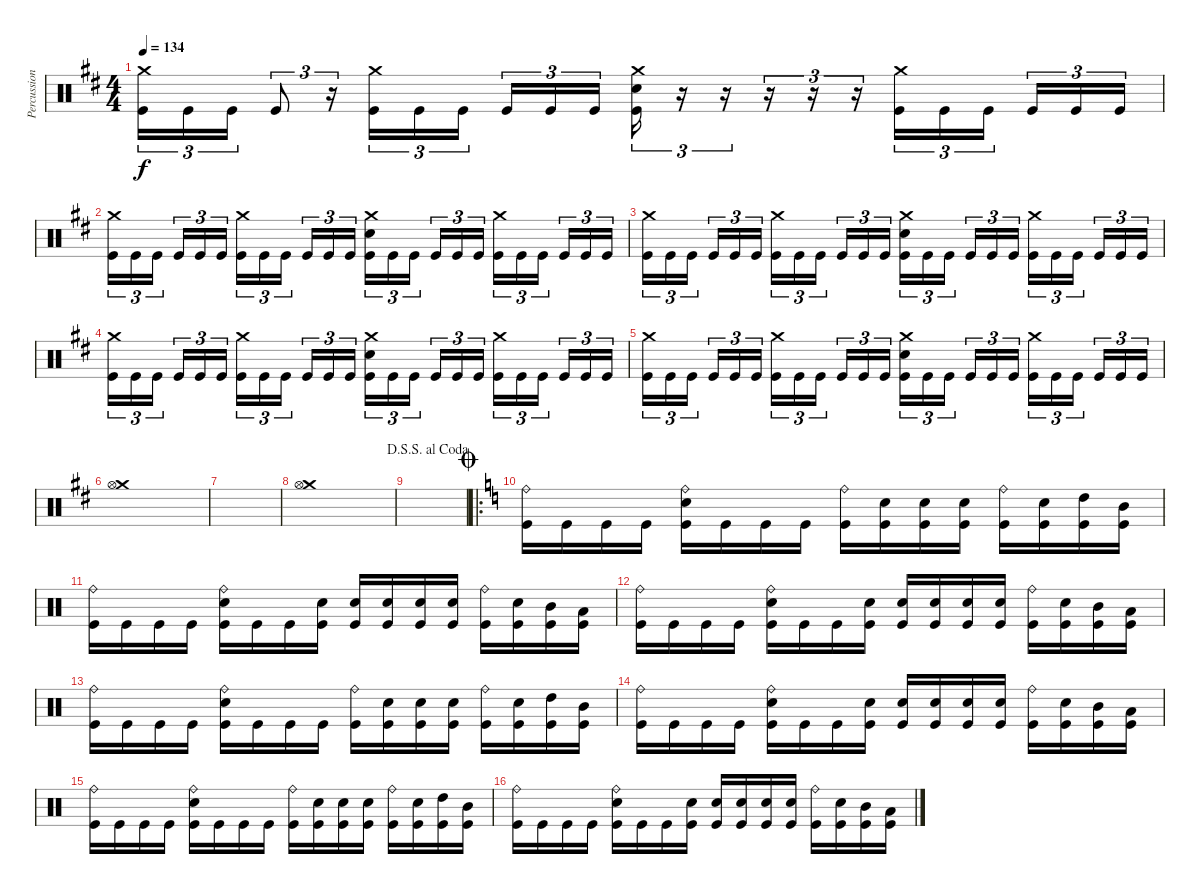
\track ("Percussion" "Percussion") {instrument percussion}
\staff {score}
\articulation defaults
\ts (4 4)
\tempo 134
\clef neutral
\ks d
("Crash medium (hit)" "Kick (hit)").16{tu (3 2) dy f} "Kick (hit)".16{tu (3 2)} "Kick (hit)".16{tu (3 2)} "Kick (hit)".8{tu (3 2)} r.16{tu (3 2)} ("Crash medium (hit)" "Kick (hit)").16{tu (3 2)} "Kick (hit)".16{tu (3 2)} "Kick (hit)".16{tu (3 2) beam splitsecondary} "Kick (hit)".16{tu (3 2)} "Kick (hit)".16{tu (3 2)} "Kick (hit)".16{tu (3 2)} ("Crash medium (hit)" "Electric Snare (hit)" "Kick (hit)").16{tu (3 2)} r.16{tu (3 2)} r.16{tu (3 2)} r.16{tu (3 2)} r.16{tu (3 2)} r.16{tu (3 2)} ("Crash medium (hit)" "Kick (hit)").16{tu (3 2)} "Kick (hit)".16{tu (3 2)} "Kick (hit)".16{tu (3 2) beam splitsecondary} "Kick (hit)".16{tu (3 2)} "Kick (hit)".16{tu (3 2)} "Kick (hit)".16{tu (3 2)} |
("Crash medium (hit)" "Kick (hit)").16{tu (3 2)} "Kick (hit)".16{tu (3 2)} "Kick (hit)".16{tu (3 2) beam splitsecondary} "Kick (hit)".16{tu (3 2)} "Kick (hit)".16{tu (3 2)} "Kick (hit)".16{tu (3 2)} ("Crash medium (hit)" "Kick (hit)").16{tu (3 2)} "Kick (hit)".16{tu (3 2)} "Kick (hit)".16{tu (3 2) beam splitsecondary} "Kick (hit)".16{tu (3 2)} "Kick (hit)".16{tu (3 2)} "Kick (hit)".16{tu (3 2)} ("Crash medium (hit)" "Electric Snare (hit)" "Kick (hit)").16{tu (3 2)} "Kick (hit)".16{tu (3 2)} "Kick (hit)".16{tu (3 2) beam splitsecondary} "Kick (hit)".16{tu (3 2)} "Kick (hit)".16{tu (3 2)} "Kick (hit)".16{tu (3 2)} ("Crash medium (hit)" "Kick (hit)").16{tu (3 2)} "Kick (hit)".16{tu (3 2)} "Kick (hit)".16{tu (3 2) beam splitsecondary} "Kick (hit)".16{tu (3 2)} "Kick (hit)".16{tu (3 2)} "Kick (hit)".16{tu (3 2)} |
("Crash medium (hit)" "Kick (hit)").16{tu (3 2)} "Kick (hit)".16{tu (3 2)} "Kick (hit)".16{tu (3 2) beam splitsecondary} "Kick (hit)".16{tu (3 2)} "Kick (hit)".16{tu (3 2)} "Kick (hit)".16{tu (3 2)} ("Crash medium (hit)" "Kick (hit)").16{tu (3 2)} "Kick (hit)".16{tu (3 2)} "Kick (hit)".16{tu (3 2) beam splitsecondary} "Kick (hit)".16{tu (3 2)} "Kick (hit)".16{tu (3 2)} "Kick (hit)".16{tu (3 2)} ("Crash medium (hit)" "Electric Snare (hit)" "Kick (hit)").16{tu (3 2)} "Kick (hit)".16{tu (3 2)} "Kick (hit)".16{tu (3 2) beam splitsecondary} "Kick (hit)".16{tu (3 2)} "Kick (hit)".16{tu (3 2)} "Kick (hit)".16{tu (3 2)} ("Crash medium (hit)" "Kick (hit)").16{tu (3 2)} "Kick (hit)".16{tu (3 2)} "Kick (hit)".16{tu (3 2) beam splitsecondary} "Kick (hit)".16{tu (3 2)} "Kick (hit)".16{tu (3 2)} "Kick (hit)".16{tu (3 2)} |
("Crash medium (hit)" "Kick (hit)").16{tu (3 2)} "Kick (hit)".16{tu (3 2)} "Kick (hit)".16{tu (3 2) beam splitsecondary} "Kick (hit)".16{tu (3 2)} "Kick (hit)".16{tu (3 2)} "Kick (hit)".16{tu (3 2)} ("Crash medium (hit)" "Kick (hit)").16{tu (3 2)} "Kick (hit)".16{tu (3 2)} "Kick (hit)".16{tu (3 2) beam splitsecondary} "Kick (hit)".16{tu (3 2)} "Kick (hit)".16{tu (3 2)} "Kick (hit)".16{tu (3 2)} ("Crash medium (hit)" "Electric Snare (hit)" "Kick (hit)").16{tu (3 2)} "Kick (hit)".16{tu (3 2)} "Kick (hit)".16{tu (3 2) beam splitsecondary} "Kick (hit)".16{tu (3 2)} "Kick (hit)".16{tu (3 2)} "Kick (hit)".16{tu (3 2)} ("Crash medium (hit)" "Kick (hit)").16{tu (3 2)} "Kick (hit)".16{tu (3 2)} "Kick (hit)".16{tu (3 2) beam splitsecondary} "Kick (hit)".16{tu (3 2)} "Kick (hit)".16{tu (3 2)} "Kick (hit)".16{tu (3 2)} |
("Crash medium (hit)" "Kick (hit)").16{tu (3 2)} "Kick (hit)".16{tu (3 2)} "Kick (hit)".16{tu (3 2) beam splitsecondary} "Kick (hit)".16{tu (3 2)} "Kick (hit)".16{tu (3 2)} "Kick (hit)".16{tu (3 2)} ("Crash medium (hit)" "Kick (hit)").16{tu (3 2)} "Kick (hit)".16{tu (3 2)} "Kick (hit)".16{tu (3 2) beam splitsecondary} "Kick (hit)".16{tu (3 2)} "Kick (hit)".16{tu (3 2)} "Kick (hit)".16{tu (3 2)} ("Crash medium (hit)" "Electric Snare (hit)" "Kick (hit)").16{tu (3 2)} "Kick (hit)".16{tu (3 2)} "Kick (hit)".16{tu (3 2) beam splitsecondary} "Kick (hit)".16{tu (3 2)} "Kick (hit)".16{tu (3 2)} "Kick (hit)".16{tu (3 2)} ("Crash medium (hit)" "Kick (hit)").16{tu (3 2)} "Kick (hit)".16{tu (3 2)} "Kick (hit)".16{tu (3 2) beam splitsecondary} "Kick (hit)".16{tu (3 2)} "Kick (hit)".16{tu (3 2)} "Kick (hit)".16{tu (3 2)} |
("Crash medium (hit)" "Hi-Hat (open)").1 |
|
("Crash medium (hit)" "Hi-Hat (open)").1 |
\jump dalsegnosegnoalcoda
|
\ro
\jump coda
\ks c
("Ride (bell)" "Kick (hit)").16 "Kick (hit)".16 "Kick (hit)".16 "Kick (hit)".16 ("Ride (bell)" "Electric Snare (hit)" "Kick (hit)").16 "Kick (hit)".16 "Kick (hit)".16 "Kick (hit)".16 ("Ride (bell)" "Kick (hit)").16 ("Electric Snare (hit)" "Kick (hit)").16 ("Electric Snare (hit)" "Kick (hit)").16 ("Electric Snare (hit)" "Kick (hit)").16 ("Ride (bell)" "Kick (hit)").16 ("Electric Snare (hit)" "Kick (hit)").16 ("High Tom (hit)" "Kick (hit)").16 ("Mid Tom (hit)" "Kick (hit)").16 |
("Ride (bell)" "Kick (hit)").16 "Kick (hit)".16 "Kick (hit)".16 "Kick (hit)".16 ("Ride (bell)" "Electric Snare (hit)" "Kick (hit)").16 "Kick (hit)".16 "Kick (hit)".16 ("Electric Snare (hit)" "Kick (hit)").16 ("Electric Snare (hit)" "Kick (hit)").16 ("Electric Snare (hit)" "Kick (hit)").16 ("Electric Snare (hit)" "Kick (hit)").16 ("Electric Snare (hit)" "Kick (hit)").16 ("Ride (bell)" "Kick (hit)").16 ("Electric Snare (hit)" "Kick (hit)").16 ("Mid Tom (hit)" "Kick (hit)").16 ("Low Tom (hit)" "Kick (hit)").16 |
("Ride (bell)" "Kick (hit)").16 "Kick (hit)".16 "Kick (hit)".16 "Kick (hit)".16 ("Ride (bell)" "Electric Snare (hit)" "Kick (hit)").16 "Kick (hit)".16 "Kick (hit)".16 ("Electric Snare (hit)" "Kick (hit)").16 ("Electric Snare (hit)" "Kick (hit)").16 ("Electric Snare (hit)" "Kick (hit)").16 ("Electric Snare (hit)" "Kick (hit)").16 ("Electric Snare (hit)" "Kick (hit)").16 ("Ride (bell)" "Kick (hit)").16 ("Electric Snare (hit)" "Kick (hit)").16 ("Mid Tom (hit)" "Kick (hit)").16 ("Low Tom (hit)" "Kick (hit)").16 |
("Ride (bell)" "Kick (hit)").16 "Kick (hit)".16 "Kick (hit)".16 "Kick (hit)".16 ("Ride (bell)" "Electric Snare (hit)" "Kick (hit)").16 "Kick (hit)".16 "Kick (hit)".16 "Kick (hit)".16 ("Ride (bell)" "Kick (hit)").16 ("Electric Snare (hit)" "Kick (hit)").16 ("Electric Snare (hit)" "Kick (hit)").16 ("Electric Snare (hit)" "Kick (hit)").16 ("Ride (bell)" "Kick (hit)").16 ("Electric Snare (hit)" "Kick (hit)").16 ("High Tom (hit)" "Kick (hit)").16 ("Mid Tom (hit)" "Kick (hit)").16 |
("Ride (bell)" "Kick (hit)").16 "Kick (hit)".16 "Kick (hit)".16 "Kick (hit)".16 ("Ride (bell)" "Electric Snare (hit)" "Kick (hit)").16 "Kick (hit)".16 "Kick (hit)".16 ("Electric Snare (hit)" "Kick (hit)").16 ("Electric Snare (hit)" "Kick (hit)").16 ("Electric Snare (hit)" "Kick (hit)").16 ("Electric Snare (hit)" "Kick (hit)").16 ("Electric Snare (hit)" "Kick (hit)").16 ("Ride (bell)" "Kick (hit)").16 ("Electric Snare (hit)" "Kick (hit)").16 ("Mid Tom (hit)" "Kick (hit)").16 ("Low Tom (hit)" "Kick (hit)").16 |
("Ride (bell)" "Kick (hit)").16 "Kick (hit)".16 "Kick (hit)".16 "Kick (hit)".16 ("Ride (bell)" "Electric Snare (hit)" "Kick (hit)").16 "Kick (hit)".16 "Kick (hit)".16 "Kick (hit)".16 ("Ride (bell)" "Kick (hit)").16 ("Electric Snare (hit)" "Kick (hit)").16 ("Electric Snare (hit)" "Kick (hit)").16 ("Electric Snare (hit)" "Kick (hit)").16 ("Ride (bell)" "Kick (hit)").16 ("Electric Snare (hit)" "Kick (hit)").16 ("High Tom (hit)" "Kick (hit)").16 ("Mid Tom (hit)" "Kick (hit)").16 |
("Ride (bell)" "Kick (hit)").16 "Kick (hit)".16 "Kick (hit)".16 "Kick (hit)".16 ("Ride (bell)" "Electric Snare (hit)" "Kick (hit)").16 "Kick (hit)".16 "Kick (hit)".16 ("Electric Snare (hit)" "Kick (hit)").16 ("Electric Snare (hit)" "Kick (hit)").16 ("Electric Snare (hit)" "Kick (hit)").16 ("Electric Snare (hit)" "Kick (hit)").16 ("Electric Snare (hit)" "Kick (hit)").16 ("Ride (bell)" "Kick (hit)").16 ("Electric Snare (hit)" "Kick (hit)").16 ("Mid Tom (hit)" "Kick (hit)").16 ("Low Tom (hit)" "Kick (hit)").16
